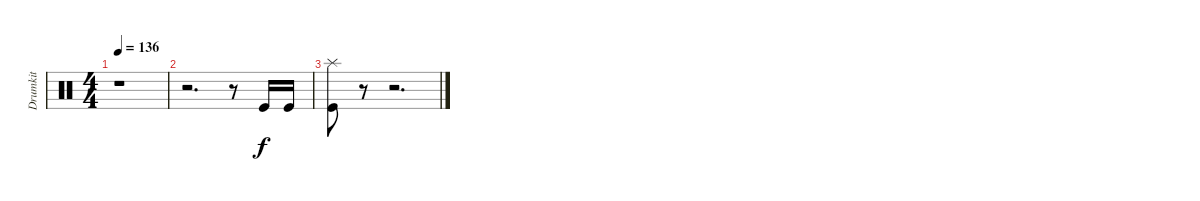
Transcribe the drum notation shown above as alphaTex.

\track ("Drumkit" "Drumkit") {instrument percussion}
\staff {score}
\articulation defaults
\ts (4 4)
\tempo 136
\clef neutral
\ks c
r.1{dy f} |
r.2{d} r.8 "Kick (hit)".16 "Kick (hit)".16 |
("Kick (hit)" "Splash (hit)").8 r.8 r.2{d}
